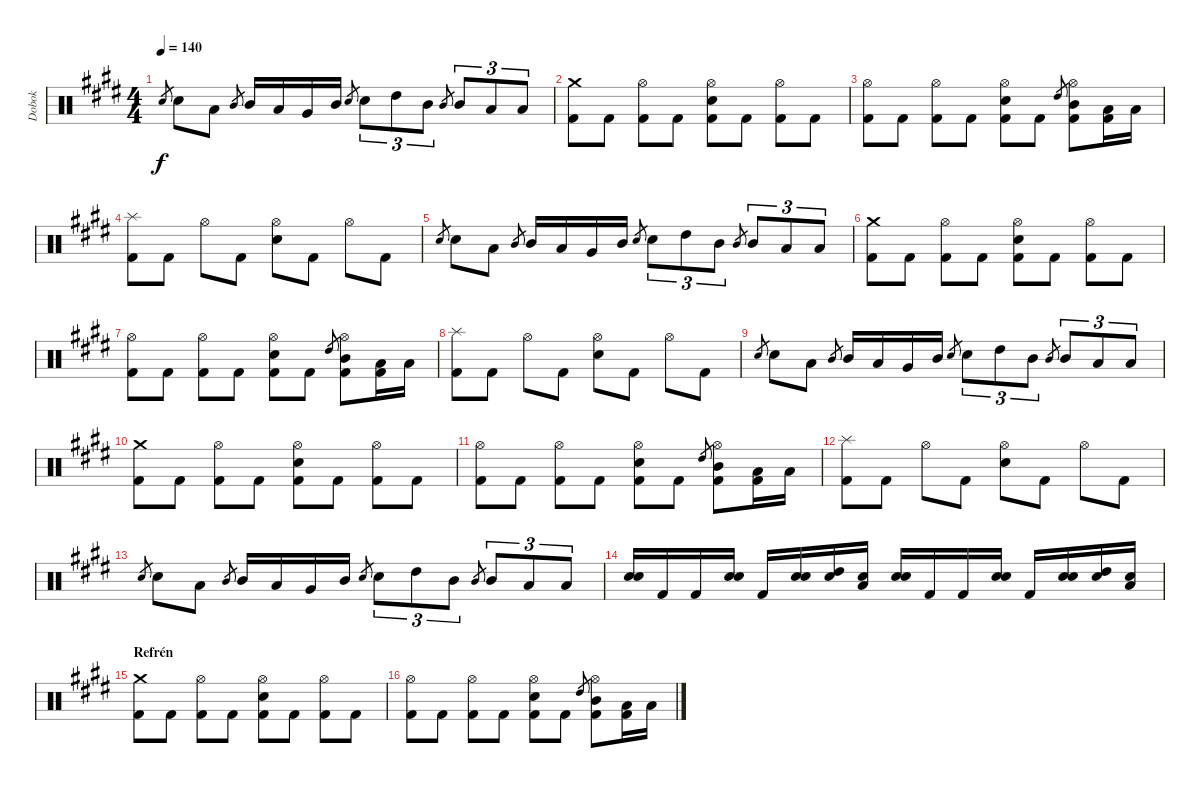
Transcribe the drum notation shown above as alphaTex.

\track ("Dobok" "Dobok") {instrument percussion}
\staff {score}
\articulation defaults
\ts (4 4)
\tempo 140
\clef neutral
\ks c#minor "Snare (hit) 2".8{gr dy f} "Snare (hit) 2".8 "Low Tom (hit)".8 "Mid Tom (hit)".8{gr} "Mid Tom (hit)".16 "Low Tom (hit)".16 "Very Low Tom (hit)".16 "Mid Tom (hit)".16 "Snare (hit) 2".8{gr} "Snare (hit) 2".8{tu (3 2)} "High Tom (hit)".8{tu (3 2)} "Mid Tom (hit)".8{tu (3 2)} "Mid Tom (hit)".8{gr} "Mid Tom (hit)".8{tu (3 2)} "Low Tom (hit)".8{tu (3 2)} "Low Tom (hit)".8{tu (3 2)}
|
("Crash medium (hit)" "Kick (hit) 2").8 "Kick (hit) 2".8 ("Hi-Hat (open)" "Kick (hit) 2").8 "Kick (hit) 2".8 ("Hi-Hat (open)" "Snare (hit) 2" "Kick (hit) 2").8 "Kick (hit) 2".8 ("Hi-Hat (open)" "Kick (hit) 2").8 "Kick (hit) 2".8 |
("Hi-Hat (open)" "Kick (hit) 2").8 "Kick (hit) 2".8 ("Hi-Hat (open)" "Kick (hit) 2").8 "Kick (hit) 2".8 ("Hi-Hat (open)" "Snare (hit) 2" "Kick (hit) 2").8 "Kick (hit) 2".8 "High Tom (hit)".8{gr} ("Hi-Hat (open)" "Mid Tom (hit)" "Kick (hit) 2").8 ("Low Tom (hit)" "Kick (hit) 2").16 "Low Tom (hit)".16 |
("Splash (hit)" "Kick (hit) 2").8 "Kick (hit) 2".8 "Hi-Hat (open)".8 "Kick (hit) 2".8 ("Hi-Hat (open)" "Snare (hit) 2").8 "Kick (hit) 2".8 "Hi-Hat (open)".8 "Kick (hit) 2".8 |
"Snare (hit) 2".8{gr} "Snare (hit) 2".8 "Low Tom (hit)".8 "Mid Tom (hit)".8{gr} "Mid Tom (hit)".16 "Low Tom (hit)".16 "Very Low Tom (hit)".16 "Mid Tom (hit)".16 "Snare (hit) 2".8{gr} "Snare (hit) 2".8{tu (3 2)} "High Tom (hit)".8{tu (3 2)} "Mid Tom (hit)".8{tu (3 2)} "Mid Tom (hit)".8{gr} "Mid Tom (hit)".8{tu (3 2)} "Low Tom (hit)".8{tu (3 2)} "Low Tom (hit)".8{tu (3 2)} |
("Crash medium (hit)" "Kick (hit) 2").8 "Kick (hit) 2".8 ("Hi-Hat (open)" "Kick (hit) 2").8 "Kick (hit) 2".8 ("Hi-Hat (open)" "Snare (hit) 2" "Kick (hit) 2").8 "Kick (hit) 2".8 ("Hi-Hat (open)" "Kick (hit) 2").8 "Kick (hit) 2".8 |
("Hi-Hat (open)" "Kick (hit) 2").8 "Kick (hit) 2".8 ("Hi-Hat (open)" "Kick (hit) 2").8 "Kick (hit) 2".8 ("Hi-Hat (open)" "Snare (hit) 2" "Kick (hit) 2").8 "Kick (hit) 2".8 "High Tom (hit)".8{gr} ("Hi-Hat (open)" "Mid Tom (hit)" "Kick (hit) 2").8 ("Low Tom (hit)" "Kick (hit) 2").16 "Low Tom (hit)".16 |
("Splash (hit)" "Kick (hit) 2").8 "Kick (hit) 2".8 "Hi-Hat (open)".8 "Kick (hit) 2".8 ("Hi-Hat (open)" "Snare (hit) 2").8 "Kick (hit) 2".8 "Hi-Hat (open)".8 "Kick (hit) 2".8 |
"Snare (hit) 2".8{gr} "Snare (hit) 2".8 "Low Tom (hit)".8 "Mid Tom (hit)".8{gr} "Mid Tom (hit)".16 "Low Tom (hit)".16 "Very Low Tom (hit)".16 "Mid Tom (hit)".16 "Snare (hit) 2".8{gr} "Snare (hit) 2".8{tu (3 2)} "High Tom (hit)".8{tu (3 2)} "Mid Tom (hit)".8{tu (3 2)} "Mid Tom (hit)".8{gr} "Mid Tom (hit)".8{tu (3 2)} "Low Tom (hit)".8{tu (3 2)} "Low Tom (hit)".8{tu (3 2)} |
("Crash medium (hit)" "Kick (hit) 2").8 "Kick (hit) 2".8 ("Hi-Hat (open)" "Kick (hit) 2").8 "Kick (hit) 2".8 ("Hi-Hat (open)" "Snare (hit) 2" "Kick (hit) 2").8 "Kick (hit) 2".8 ("Hi-Hat (open)" "Kick (hit) 2").8 "Kick (hit) 2".8 |
("Hi-Hat (open)" "Kick (hit) 2").8 "Kick (hit) 2".8 ("Hi-Hat (open)" "Kick (hit) 2").8 "Kick (hit) 2".8 ("Hi-Hat (open)" "Snare (hit) 2" "Kick (hit) 2").8 "Kick (hit) 2".8 "High Tom (hit)".8{gr} ("Hi-Hat (open)" "Mid Tom (hit)" "Kick (hit) 2").8 ("Low Tom (hit)" "Kick (hit) 2").16 "Low Tom (hit)".16 |
("Splash (hit)" "Kick (hit) 2").8 "Kick (hit) 2".8 "Hi-Hat (open)".8 "Kick (hit) 2".8 ("Hi-Hat (open)" "Snare (hit) 2").8 "Kick (hit) 2".8 "Hi-Hat (open)".8 "Kick (hit) 2".8 |
"Snare (hit) 2".8{gr} "Snare (hit) 2".8 "Low Tom (hit)".8 "Mid Tom (hit)".8{gr} "Mid Tom (hit)".16 "Low Tom (hit)".16 "Very Low Tom (hit)".16 "Mid Tom (hit)".16 "Snare (hit) 2".8{gr} "Snare (hit) 2".8{tu (3 2)} "High Tom (hit)".8{tu (3 2)} "Mid Tom (hit)".8{tu (3 2)} "Mid Tom (hit)".8{gr} "Mid Tom (hit)".8{tu (3 2)} "Low Tom (hit)".8{tu (3 2)} "Low Tom (hit)".8{tu (3 2)} |
("Snare (hit) 2" "Snare (hit) 2").16 "Kick (hit) 2".16 "Kick (hit) 2".16 ("Snare (hit) 2" "Snare (hit) 2").16 "Kick (hit) 2".16 ("Snare (hit) 2" "Snare (hit) 2").16 ("Snare (hit) 2" "High Tom (hit)").16 ("Snare (hit) 2" "Low Tom (hit)").16 ("Snare (hit) 2" "Snare (hit) 2").16 "Kick (hit) 2".16 "Kick (hit) 2".16 ("Snare (hit) 2" "Snare (hit) 2").16 "Kick (hit) 2".16 ("Snare (hit) 2" "Snare (hit) 2").16 ("Snare (hit) 2" "High Tom (hit)").16 ("Snare (hit) 2" "Low Tom (hit)").16 |
\section ("" "Refrén")
("Crash medium (hit)" "Kick (hit) 2").8 "Kick (hit) 2".8 ("Hi-Hat (open)" "Kick (hit) 2").8 "Kick (hit) 2".8 ("Hi-Hat (open)" "Snare (hit) 2" "Kick (hit) 2").8 "Kick (hit) 2".8 ("Hi-Hat (open)" "Kick (hit) 2").8 "Kick (hit) 2".8 |
("Hi-Hat (open)" "Kick (hit) 2").8 "Kick (hit) 2".8 ("Hi-Hat (open)" "Kick (hit) 2").8 "Kick (hit) 2".8 ("Hi-Hat (open)" "Snare (hit) 2" "Kick (hit) 2").8 "Kick (hit) 2".8 "High Tom (hit)".8{gr} ("Hi-Hat (open)" "Mid Tom (hit)" "Kick (hit) 2").8 ("Low Tom (hit)" "Kick (hit) 2").16 "Low Tom (hit)".16
